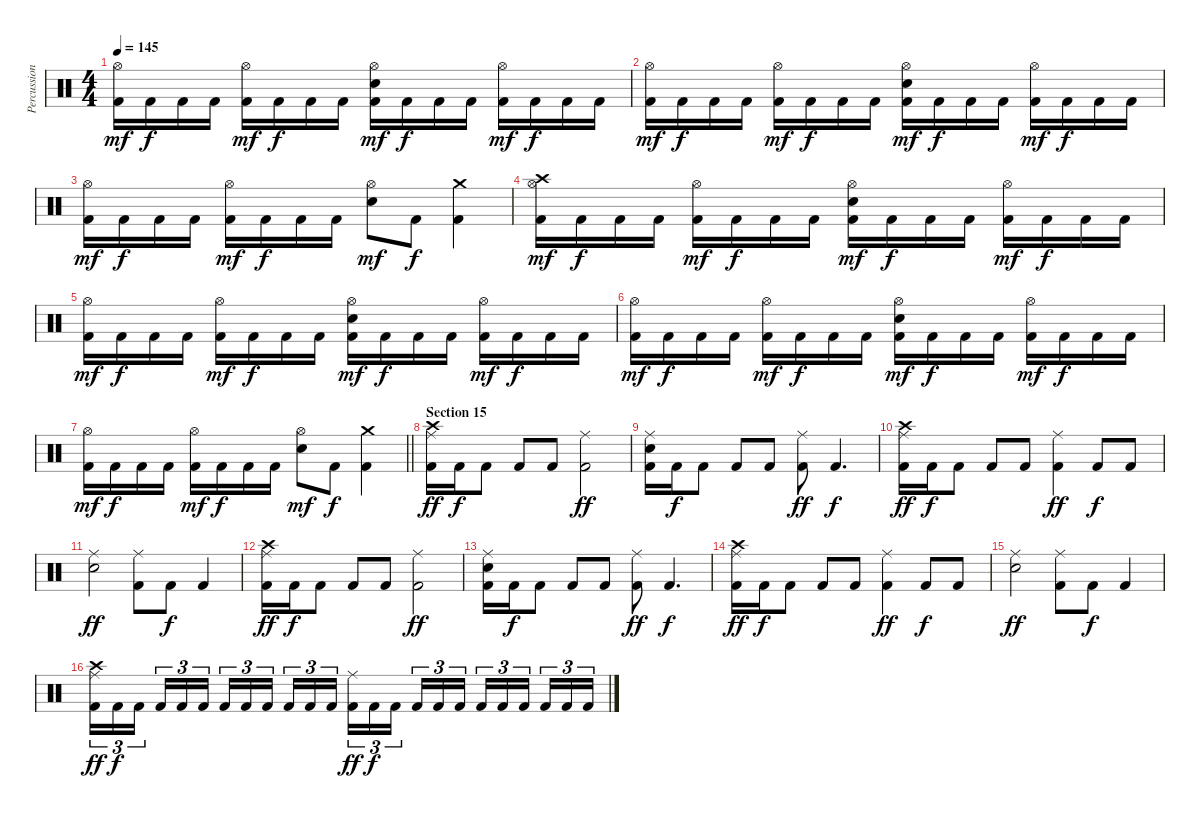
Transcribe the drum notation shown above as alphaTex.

\track ("Percussion" "Percussion") {instrument percussion}
\staff {score}
\articulation defaults
\ts (4 4)
\tempo 145
\clef neutral
\ks c
("Hi-Hat (open)" "Kick (hit) 2").16{dy mf} "Kick (hit) 2".16{dy f} "Kick (hit) 2".16 "Kick (hit) 2".16 ("Hi-Hat (open)" "Kick (hit) 2").16{dy mf} "Kick (hit) 2".16{dy f} "Kick (hit) 2".16 "Kick (hit) 2".16 ("Hi-Hat (open)" "Electric Snare (hit)" "Kick (hit) 2").16{dy mf} "Kick (hit) 2".16{dy f} "Kick (hit) 2".16 "Kick (hit) 2".16 ("Hi-Hat (open)" "Kick (hit) 2").16{dy mf} "Kick (hit) 2".16{dy f} "Kick (hit) 2".16 "Kick (hit) 2".16 |
("Hi-Hat (open)" "Kick (hit) 2").16{dy mf} "Kick (hit) 2".16{dy f} "Kick (hit) 2".16 "Kick (hit) 2".16 ("Hi-Hat (open)" "Kick (hit) 2").16{dy mf} "Kick (hit) 2".16{dy f} "Kick (hit) 2".16 "Kick (hit) 2".16 ("Hi-Hat (open)" "Electric Snare (hit)" "Kick (hit) 2").16{dy mf} "Kick (hit) 2".16{dy f} "Kick (hit) 2".16 "Kick (hit) 2".16 ("Hi-Hat (open)" "Kick (hit) 2").16{dy mf} "Kick (hit) 2".16{dy f} "Kick (hit) 2".16 "Kick (hit) 2".16 |
("Hi-Hat (open)" "Kick (hit) 2").16{dy mf} "Kick (hit) 2".16{dy f} "Kick (hit) 2".16 "Kick (hit) 2".16 ("Hi-Hat (open)" "Kick (hit) 2").16{dy mf} "Kick (hit) 2".16{dy f} "Kick (hit) 2".16 "Kick (hit) 2".16 ("Hi-Hat (open)" "Electric Snare (hit)").8{dy mf} "Kick (hit) 2".8{dy f} ("Crash medium (hit)" "Kick (hit) 2").4 |
("Crash high (hit)" "Hi-Hat (open)" "Kick (hit) 2").16{dy mf} "Kick (hit) 2".16{dy f} "Kick (hit) 2".16 "Kick (hit) 2".16 ("Hi-Hat (open)" "Kick (hit) 2").16{dy mf} "Kick (hit) 2".16{dy f} "Kick (hit) 2".16 "Kick (hit) 2".16 ("Hi-Hat (open)" "Electric Snare (hit)" "Kick (hit) 2").16{dy mf} "Kick (hit) 2".16{dy f} "Kick (hit) 2".16 "Kick (hit) 2".16 ("Hi-Hat (open)" "Kick (hit) 2").16{dy mf} "Kick (hit) 2".16{dy f} "Kick (hit) 2".16 "Kick (hit) 2".16 |
("Hi-Hat (open)" "Kick (hit) 2").16{dy mf} "Kick (hit) 2".16{dy f} "Kick (hit) 2".16 "Kick (hit) 2".16 ("Hi-Hat (open)" "Kick (hit) 2").16{dy mf} "Kick (hit) 2".16{dy f} "Kick (hit) 2".16 "Kick (hit) 2".16 ("Hi-Hat (open)" "Electric Snare (hit)" "Kick (hit) 2").16{dy mf} "Kick (hit) 2".16{dy f} "Kick (hit) 2".16 "Kick (hit) 2".16 ("Hi-Hat (open)" "Kick (hit) 2").16{dy mf} "Kick (hit) 2".16{dy f} "Kick (hit) 2".16 "Kick (hit) 2".16 |
("Hi-Hat (open)" "Kick (hit) 2").16{dy mf} "Kick (hit) 2".16{dy f} "Kick (hit) 2".16 "Kick (hit) 2".16 ("Hi-Hat (open)" "Kick (hit) 2").16{dy mf} "Kick (hit) 2".16{dy f} "Kick (hit) 2".16 "Kick (hit) 2".16 ("Hi-Hat (open)" "Electric Snare (hit)" "Kick (hit) 2").16{dy mf} "Kick (hit) 2".16{dy f} "Kick (hit) 2".16 "Kick (hit) 2".16 ("Hi-Hat (open)" "Kick (hit) 2").16{dy mf} "Kick (hit) 2".16{dy f} "Kick (hit) 2".16 "Kick (hit) 2".16 |
\barLineRight lightlight
("Hi-Hat (open)" "Kick (hit) 2").16{dy mf} "Kick (hit) 2".16{dy f} "Kick (hit) 2".16 "Kick (hit) 2".16 ("Hi-Hat (open)" "Kick (hit) 2").16{dy mf} "Kick (hit) 2".16{dy f} "Kick (hit) 2".16 "Kick (hit) 2".16 ("Hi-Hat (open)" "Electric Snare (hit)").8{dy mf} "Kick (hit) 2".8{dy f} ("Crash medium (hit)" "Kick (hit) 2").4 |
\section ("" "Section 15")
("Crash high (hit)" "Ride (middle)" "Kick (hit) 2").16{dy ff} "Kick (hit) 2".16{dy f} "Kick (hit) 2".8 "Kick (hit) 2".8 "Kick (hit) 2".8 ("Ride (middle)" "Kick (hit) 2").2{dy ff} |
("Ride (middle)" "Electric Snare (hit)" "Kick (hit) 2").16 "Kick (hit) 2".16{dy f} "Kick (hit) 2".8 "Kick (hit) 2".8 "Kick (hit) 2".8 ("Ride (middle)" "Kick (hit) 2").8{dy ff} "Kick (hit) 2".4{d dy f} |
("Crash high (hit)" "Ride (middle)" "Kick (hit) 2").16{dy ff} "Kick (hit) 2".16{dy f} "Kick (hit) 2".8 "Kick (hit) 2".8 "Kick (hit) 2".8 ("Ride (middle)" "Kick (hit) 2").4{dy ff} "Kick (hit) 2".8{dy f} "Kick (hit) 2".8 |
("Ride (middle)" "Electric Snare (hit)").2{dy ff} ("Ride (middle)" "Kick (hit) 2").8 "Kick (hit) 2".8{dy f} "Kick (hit) 2".4 |
("Crash high (hit)" "Ride (middle)" "Kick (hit) 2").16{dy ff} "Kick (hit) 2".16{dy f} "Kick (hit) 2".8 "Kick (hit) 2".8 "Kick (hit) 2".8 ("Ride (middle)" "Kick (hit) 2").2{dy ff} |
("Ride (middle)" "Electric Snare (hit)" "Kick (hit) 2").16 "Kick (hit) 2".16{dy f} "Kick (hit) 2".8 "Kick (hit) 2".8 "Kick (hit) 2".8 ("Ride (middle)" "Kick (hit) 2").8{dy ff} "Kick (hit) 2".4{d dy f} |
("Crash high (hit)" "Ride (middle)" "Kick (hit) 2").16{dy ff} "Kick (hit) 2".16{dy f} "Kick (hit) 2".8 "Kick (hit) 2".8 "Kick (hit) 2".8 ("Ride (middle)" "Kick (hit) 2").4{dy ff} "Kick (hit) 2".8{dy f} "Kick (hit) 2".8 |
("Ride (middle)" "Electric Snare (hit)").2{dy ff} ("Ride (middle)" "Kick (hit) 2").8 "Kick (hit) 2".8{dy f} "Kick (hit) 2".4 |
("Crash high (hit)" "Ride (middle)" "Kick (hit) 2").16{tu (3 2) dy ff} "Kick (hit) 2".16{tu (3 2) dy f} "Kick (hit) 2".16{tu (3 2) beam splitsecondary} "Kick (hit) 2".16{tu (3 2)} "Kick (hit) 2".16{tu (3 2)} "Kick (hit) 2".16{tu (3 2)} "Kick (hit) 2".16{tu (3 2)} "Kick (hit) 2".16{tu (3 2)} "Kick (hit) 2".16{tu (3 2) beam splitsecondary} "Kick (hit) 2".16{tu (3 2)} "Kick (hit) 2".16{tu (3 2)} "Kick (hit) 2".16{tu (3 2)} ("Ride (middle)" "Kick (hit) 2").16{tu (3 2) dy ff} "Kick (hit) 2".16{tu (3 2) dy f} "Kick (hit) 2".16{tu (3 2) beam splitsecondary} "Kick (hit) 2".16{tu (3 2)} "Kick (hit) 2".16{tu (3 2)} "Kick (hit) 2".16{tu (3 2)} "Kick (hit) 2".16{tu (3 2)} "Kick (hit) 2".16{tu (3 2)} "Kick (hit) 2".16{tu (3 2) beam splitsecondary} "Kick (hit) 2".16{tu (3 2)} "Kick (hit) 2".16{tu (3 2)} "Kick (hit) 2".16{tu (3 2)}
